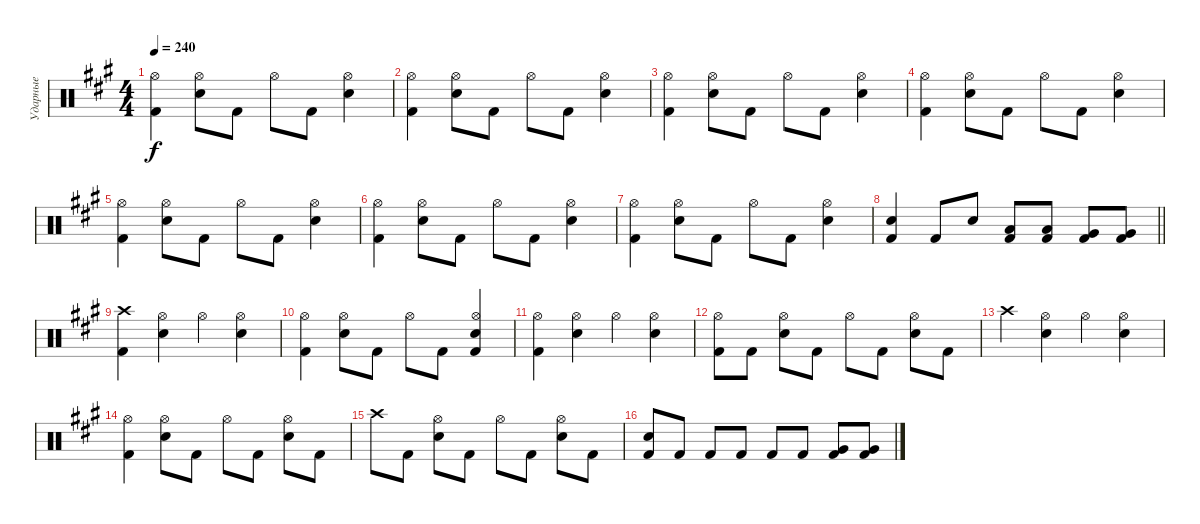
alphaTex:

\track ("Ударные" "Ударные") {instrument percussion}
\staff {score}
\articulation defaults
\ts (4 4)
\tempo 240
\clef neutral
\ks a
("Kick (hit) 2" "Hi-Hat (open)").4{dy f} ("Snare (hit) 2" "Hi-Hat (open)").8 "Kick (hit) 2".8 "Hi-Hat (open)".8 "Kick (hit) 2".8 ("Snare (hit) 2" "Hi-Hat (open)").4 |
("Kick (hit) 2" "Hi-Hat (open)").4 ("Snare (hit) 2" "Hi-Hat (open)").8 "Kick (hit) 2".8 "Hi-Hat (open)".8 "Kick (hit) 2".8 ("Snare (hit) 2" "Hi-Hat (open)").4 |
("Kick (hit) 2" "Hi-Hat (open)").4 ("Snare (hit) 2" "Hi-Hat (open)").8 "Kick (hit) 2".8 "Hi-Hat (open)".8 "Kick (hit) 2".8 ("Snare (hit) 2" "Hi-Hat (open)").4 |
("Kick (hit) 2" "Hi-Hat (open)").4 ("Snare (hit) 2" "Hi-Hat (open)").8 "Kick (hit) 2".8 "Hi-Hat (open)".8 "Kick (hit) 2".8 ("Snare (hit) 2" "Hi-Hat (open)").4 |
("Kick (hit) 2" "Hi-Hat (open)").4 ("Snare (hit) 2" "Hi-Hat (open)").8 "Kick (hit) 2".8 "Hi-Hat (open)".8 "Kick (hit) 2".8 ("Snare (hit) 2" "Hi-Hat (open)").4 |
("Kick (hit) 2" "Hi-Hat (open)").4 ("Snare (hit) 2" "Hi-Hat (open)").8 "Kick (hit) 2".8 "Hi-Hat (open)".8 "Kick (hit) 2".8 ("Snare (hit) 2" "Hi-Hat (open)").4 |
("Kick (hit) 2" "Hi-Hat (open)").4 ("Snare (hit) 2" "Hi-Hat (open)").8 "Kick (hit) 2".8 "Hi-Hat (open)".8 "Kick (hit) 2".8 ("Snare (hit) 2" "Hi-Hat (open)").4 |
\barLineRight lightlight
("Kick (hit) 2" "Snare (hit) 2").4 "Kick (hit) 2".8 "Snare (hit) 2".8 ("Kick (hit) 2" "Low Tom (hit)").8 ("Kick (hit) 2" "Low Tom (hit)").8 ("Kick (hit) 2" "Very Low Tom (hit)").8 ("Kick (hit) 2" "Very Low Tom (hit)").8 |
("Kick (hit) 2" "Crash high (hit)").4 ("Snare (hit) 2" "Hi-Hat (open)").4 "Hi-Hat (open)".4 ("Snare (hit) 2" "Hi-Hat (open)").4 |
("Kick (hit) 2" "Hi-Hat (open)").4 ("Snare (hit) 2" "Hi-Hat (open)").8 "Kick (hit) 2".8 "Hi-Hat (open)".8 "Kick (hit) 2".8 ("Kick (hit) 2" "Snare (hit) 2" "Hi-Hat (open)").4 |
("Kick (hit) 2" "Hi-Hat (open)").4 ("Snare (hit) 2" "Hi-Hat (open)").4 "Hi-Hat (open)".4 ("Snare (hit) 2" "Hi-Hat (open)").4 |
("Kick (hit) 2" "Hi-Hat (open)").8 "Kick (hit) 2".8 ("Snare (hit) 2" "Hi-Hat (open)").8 "Kick (hit) 2".8 "Hi-Hat (open)".8 "Kick (hit) 2".8 ("Snare (hit) 2" "Hi-Hat (open)").8 "Kick (hit) 2".8 |
"Crash high (hit)".4 ("Snare (hit) 2" "Hi-Hat (open)").4 "Hi-Hat (open)".4 ("Snare (hit) 2" "Hi-Hat (open)").4 |
("Kick (hit) 2" "Hi-Hat (open)").4 ("Snare (hit) 2" "Hi-Hat (open)").8 "Kick (hit) 2".8 "Hi-Hat (open)".8 "Kick (hit) 2".8 ("Snare (hit) 2" "Hi-Hat (open)").8 "Kick (hit) 2".8 |
"Crash high (hit)".8 "Kick (hit) 2".8 ("Snare (hit) 2" "Hi-Hat (open)").8 "Kick (hit) 2".8 "Hi-Hat (open)".8 "Kick (hit) 2".8 ("Snare (hit) 2" "Hi-Hat (open)").8 "Kick (hit) 2".8 |
("Kick (hit) 2" "Snare (hit) 2").8 "Kick (hit) 2".8 "Kick (hit) 2".8 "Kick (hit) 2".8 "Kick (hit) 2".8 "Kick (hit) 2".8 ("Kick (hit) 2" "Very Low Tom (hit)").8 ("Kick (hit) 2" "Very Low Tom (hit)").8
